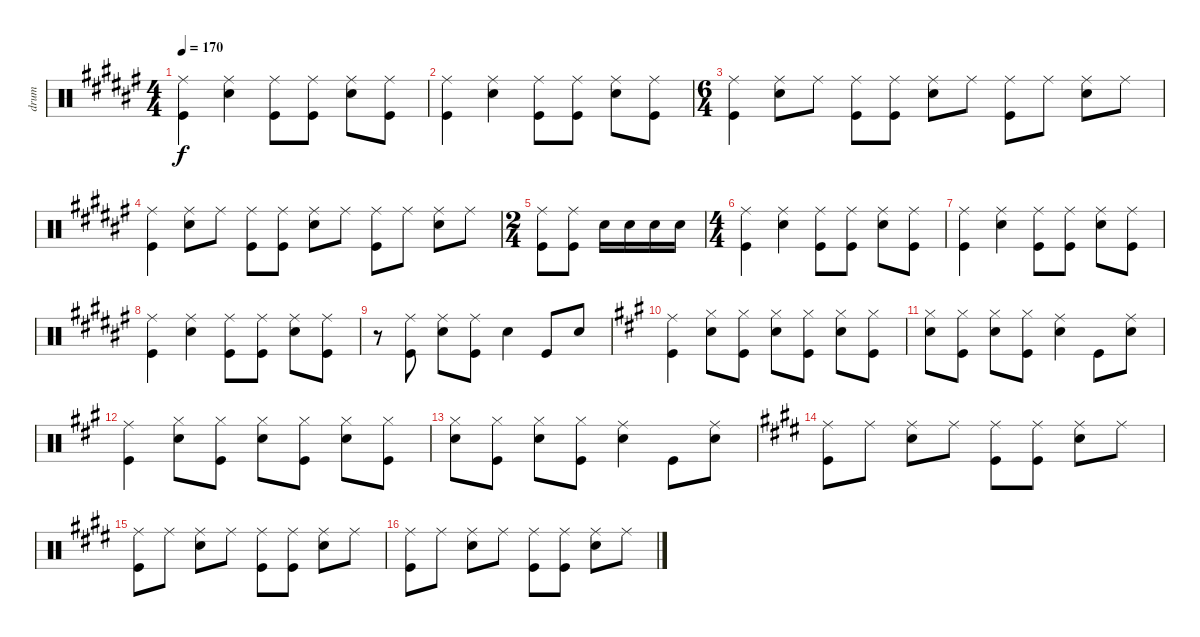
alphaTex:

\track ("drum" "drum") {instrument percussion}
\staff {score}
\articulation defaults
\ts (4 4)
\tempo 170
\clef neutral
\ks f#
("Ride (middle)" "Kick (hit)").4{dy f} ("Ride (middle)" "Snare (hit) 2").4 ("Kick (hit)" "Ride (middle)").8 ("Kick (hit)" "Ride (middle)").8 ("Snare (hit) 2" "Ride (middle)").8 ("Kick (hit)" "Ride (middle)").8 |
("Ride (middle)" "Kick (hit)").4 ("Ride (middle)" "Snare (hit) 2").4 ("Kick (hit)" "Ride (middle)").8 ("Kick (hit)" "Ride (middle)").8 ("Snare (hit) 2" "Ride (middle)").8 ("Kick (hit)" "Ride (middle)").8 |
\ts (6 4)
("Kick (hit)" "Ride (middle)").4 ("Snare (hit) 2" "Ride (middle)").8 "Ride (middle)".8 ("Kick (hit)" "Ride (middle)").8 ("Kick (hit)" "Ride (middle)").8 ("Snare (hit) 2" "Ride (middle)").8 "Ride (middle)".8 ("Kick (hit)" "Ride (middle)").8 "Ride (middle)".8 ("Snare (hit) 2" "Ride (middle)").8 "Ride (middle)".8 |
("Kick (hit)" "Ride (middle)").4 ("Snare (hit) 2" "Ride (middle)").8 "Ride (middle)".8 ("Kick (hit)" "Ride (middle)").8 ("Kick (hit)" "Ride (middle)").8 ("Snare (hit) 2" "Ride (middle)").8 "Ride (middle)".8 ("Kick (hit)" "Ride (middle)").8 "Ride (middle)".8 ("Snare (hit) 2" "Ride (middle)").8 "Ride (middle)".8 |
\ts (2 4)
("Kick (hit)" "Ride (middle)").8 ("Kick (hit)" "Ride (middle)").8 "Snare (hit) 2".16 "Snare (hit) 2".16 "Snare (hit) 2".16 "Snare (hit) 2".16 |
\ts (4 4)
("Ride (middle)" "Kick (hit)").4 ("Ride (middle)" "Snare (hit) 2").4 ("Kick (hit)" "Ride (middle)").8 ("Kick (hit)" "Ride (middle)").8 ("Snare (hit) 2" "Ride (middle)").8 ("Kick (hit)" "Ride (middle)").8 |
("Ride (middle)" "Kick (hit)").4 ("Ride (middle)" "Snare (hit) 2").4 ("Kick (hit)" "Ride (middle)").8 ("Kick (hit)" "Ride (middle)").8 ("Snare (hit) 2" "Ride (middle)").8 ("Kick (hit)" "Ride (middle)").8 |
("Ride (middle)" "Kick (hit)").4 ("Ride (middle)" "Snare (hit) 2").4 ("Kick (hit)" "Ride (middle)").8 ("Kick (hit)" "Ride (middle)").8 ("Snare (hit) 2" "Ride (middle)").8 ("Kick (hit)" "Ride (middle)").8 |
r.8 ("Kick (hit)" "Ride (middle)").8 ("Ride (middle)" "Snare (hit) 2").8 ("Ride (middle)" "Kick (hit)").8 "Snare (hit) 2".4 "Kick (hit)".8 "Snare (hit) 2".8 |
\ks a
("Ride (middle)" "Kick (hit)").4 ("Hi-Hat (closed)" "Snare (hit) 2").8 ("Hi-Hat (closed)" "Kick (hit)").8 ("Snare (hit) 2" "Hi-Hat (closed)").8 ("Kick (hit)" "Hi-Hat (closed)").8 ("Snare (hit) 2" "Hi-Hat (closed)").8 ("Kick (hit)" "Hi-Hat (closed)").8 |
("Snare (hit) 2" "Hi-Hat (closed)").8 ("Kick (hit)" "Hi-Hat (closed)").8 ("Snare (hit) 2" "Hi-Hat (closed)").8 ("Kick (hit)" "Hi-Hat (closed)").8 ("Ride (middle)" "Snare (hit) 2").4 "Kick (hit)".8 ("Ride (middle)" "Snare (hit) 2").8 |
("Ride (middle)" "Kick (hit)").4 ("Hi-Hat (closed)" "Snare (hit) 2").8 ("Hi-Hat (closed)" "Kick (hit)").8 ("Snare (hit) 2" "Hi-Hat (closed)").8 ("Kick (hit)" "Hi-Hat (closed)").8 ("Snare (hit) 2" "Hi-Hat (closed)").8 ("Kick (hit)" "Hi-Hat (closed)").8 |
("Snare (hit) 2" "Hi-Hat (closed)").8 ("Kick (hit)" "Hi-Hat (closed)").8 ("Snare (hit) 2" "Hi-Hat (closed)").8 ("Kick (hit)" "Hi-Hat (closed)").8 ("Ride (middle)" "Snare (hit) 2").4 "Kick (hit)".8 ("Ride (middle)" "Snare (hit) 2").8 |
\ks e
("Kick (hit)" "Ride (middle)").8 "Ride (middle)".8 ("Snare (hit) 2" "Ride (middle)").8 "Ride (middle)".8 ("Kick (hit)" "Ride (middle)").8 ("Kick (hit)" "Ride (middle)").8 ("Snare (hit) 2" "Ride (middle)").8 "Ride (middle)".8 |
("Kick (hit)" "Ride (middle)").8 "Ride (middle)".8 ("Snare (hit) 2" "Ride (middle)").8 "Ride (middle)".8 ("Kick (hit)" "Ride (middle)").8 ("Kick (hit)" "Ride (middle)").8 ("Snare (hit) 2" "Ride (middle)").8 "Ride (middle)".8 |
("Kick (hit)" "Ride (middle)").8 "Ride (middle)".8 ("Snare (hit) 2" "Ride (middle)").8 "Ride (middle)".8 ("Kick (hit)" "Ride (middle)").8 ("Kick (hit)" "Ride (middle)").8 ("Snare (hit) 2" "Ride (middle)").8 "Ride (middle)".8
